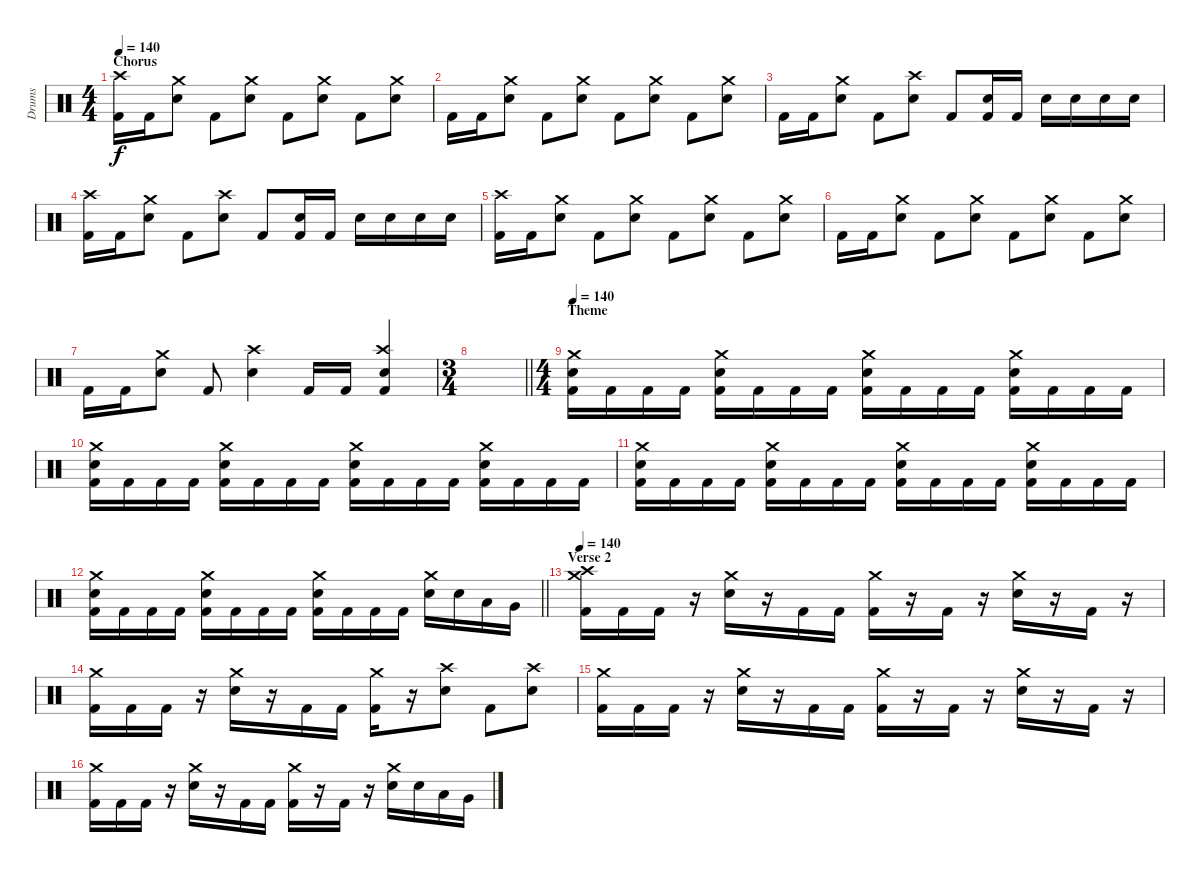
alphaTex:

\track ("Drums" "Drums") {instrument percussion}
\staff {score}
\articulation defaults
\ts (4 4)
\section ("" "Chorus")
\tempo 140
\clef neutral
\ks c
("Kick (hit) 2" "Crash high (hit)").16{dy f} "Kick (hit) 2".16 ("Snare (hit) 2" "Crash medium (hit)").8 "Kick (hit) 2".8 ("Snare (hit) 2" "Crash medium (hit)").8 "Kick (hit) 2".8 ("Snare (hit) 2" "Crash medium (hit)").8 "Kick (hit) 2".8 ("Snare (hit) 2" "Crash medium (hit)").8 |
"Kick (hit) 2".16 "Kick (hit) 2".16 ("Snare (hit) 2" "Crash medium (hit)").8 "Kick (hit) 2".8 ("Snare (hit) 2" "Crash medium (hit)").8 "Kick (hit) 2".8 ("Snare (hit) 2" "Crash medium (hit)").8 "Kick (hit) 2".8 ("Snare (hit) 2" "Crash medium (hit)").8 |
"Kick (hit) 2".16 "Kick (hit) 2".16 ("Snare (hit) 2" "Crash medium (hit)").8 "Kick (hit) 2".8 ("Snare (hit) 2" "Crash high (hit)").8 "Kick (hit) 2".8 ("Snare (hit) 2" "Kick (hit) 2").16 "Kick (hit) 2".16 "Snare (hit) 2".16 "Snare (hit) 2".16 "Snare (hit) 2".16 "Snare (hit) 2".16 |
("Kick (hit) 2" "Crash high (hit)").16 "Kick (hit) 2".16 ("Snare (hit) 2" "Crash medium (hit)").8 "Kick (hit) 2".8 ("Snare (hit) 2" "Crash high (hit)").8 "Kick (hit) 2".8 ("Snare (hit) 2" "Kick (hit) 2").16 "Kick (hit) 2".16 "Snare (hit) 2".16 "Snare (hit) 2".16 "Snare (hit) 2".16 "Snare (hit) 2".16 |
("Kick (hit) 2" "Crash high (hit)").16 "Kick (hit) 2".16 ("Snare (hit) 2" "Crash medium (hit)").8 "Kick (hit) 2".8 ("Snare (hit) 2" "Crash medium (hit)").8 "Kick (hit) 2".8 ("Snare (hit) 2" "Crash medium (hit)").8 "Kick (hit) 2".8 ("Snare (hit) 2" "Crash medium (hit)").8 |
"Kick (hit) 2".16 "Kick (hit) 2".16 ("Snare (hit) 2" "Crash medium (hit)").8 "Kick (hit) 2".8 ("Snare (hit) 2" "Crash medium (hit)").8 "Kick (hit) 2".8 ("Snare (hit) 2" "Crash medium (hit)").8 "Kick (hit) 2".8 ("Snare (hit) 2" "Crash medium (hit)").8 |
"Kick (hit) 2".16 "Kick (hit) 2".16 ("Snare (hit) 2" "Crash medium (hit)").8 "Kick (hit) 2".8 ("Snare (hit) 2" "Crash high (hit)").4 "Kick (hit) 2".16 "Kick (hit) 2".16 ("Snare (hit) 2" "Kick (hit) 2" "Crash high (hit)").4 |
\ts (3 4)
\barLineRight lightlight
|
\ts (4 4)
\section ("" "Theme")
\tempo 140
("Snare (hit) 2" "Kick (hit) 2" "Crash medium (hit)").16 "Kick (hit) 2".16 "Kick (hit) 2".16 "Kick (hit) 2".16 ("Snare (hit) 2" "Kick (hit) 2" "Crash medium (hit)").16 "Kick (hit) 2".16 "Kick (hit) 2".16 "Kick (hit) 2".16 ("Snare (hit) 2" "Kick (hit) 2" "Crash medium (hit)").16 "Kick (hit) 2".16 "Kick (hit) 2".16 "Kick (hit) 2".16 ("Snare (hit) 2" "Kick (hit) 2" "Crash medium (hit)").16 "Kick (hit) 2".16 "Kick (hit) 2".16 "Kick (hit) 2".16 |
("Snare (hit) 2" "Kick (hit) 2" "Crash medium (hit)").16 "Kick (hit) 2".16 "Kick (hit) 2".16 "Kick (hit) 2".16 ("Snare (hit) 2" "Kick (hit) 2" "Crash medium (hit)").16 "Kick (hit) 2".16 "Kick (hit) 2".16 "Kick (hit) 2".16 ("Snare (hit) 2" "Kick (hit) 2" "Crash medium (hit)").16 "Kick (hit) 2".16 "Kick (hit) 2".16 "Kick (hit) 2".16 ("Snare (hit) 2" "Kick (hit) 2" "Crash medium (hit)").16 "Kick (hit) 2".16 "Kick (hit) 2".16 "Kick (hit) 2".16 |
("Snare (hit) 2" "Kick (hit) 2" "Crash medium (hit)").16 "Kick (hit) 2".16 "Kick (hit) 2".16 "Kick (hit) 2".16 ("Snare (hit) 2" "Kick (hit) 2" "Crash medium (hit)").16 "Kick (hit) 2".16 "Kick (hit) 2".16 "Kick (hit) 2".16 ("Snare (hit) 2" "Kick (hit) 2" "Crash medium (hit)").16 "Kick (hit) 2".16 "Kick (hit) 2".16 "Kick (hit) 2".16 ("Snare (hit) 2" "Kick (hit) 2" "Crash medium (hit)").16 "Kick (hit) 2".16 "Kick (hit) 2".16 "Kick (hit) 2".16 |
\barLineRight lightlight
("Snare (hit) 2" "Kick (hit) 2" "Crash medium (hit)").16 "Kick (hit) 2".16 "Kick (hit) 2".16 "Kick (hit) 2".16 ("Snare (hit) 2" "Kick (hit) 2" "Crash medium (hit)").16 "Kick (hit) 2".16 "Kick (hit) 2".16 "Kick (hit) 2".16 ("Snare (hit) 2" "Kick (hit) 2" "Crash medium (hit)").16 "Kick (hit) 2".16 "Kick (hit) 2".16 "Kick (hit) 2".16 ("Snare (hit) 2" "Crash medium (hit)").16 "Snare (hit) 2".16 "Low Tom (hit)".16 "Very Low Tom (hit)".16 |
\section ("" "Verse 2")
\tempo 140
("Kick (hit) 2" "Crash medium (hit)" "Crash high (hit)").16 "Kick (hit) 2".16 "Kick (hit) 2".16 r.16 ("Snare (hit) 2" "Crash medium (hit)").16 r.16 "Kick (hit) 2".16 "Kick (hit) 2".16 ("Kick (hit) 2" "Crash medium (hit)").16 r.16 "Kick (hit) 2".16 r.16 ("Snare (hit) 2" "Crash medium (hit)").16 r.16 "Kick (hit) 2".16 r.16 |
("Kick (hit) 2" "Crash medium (hit)").16 "Kick (hit) 2".16 "Kick (hit) 2".16 r.16 ("Snare (hit) 2" "Crash medium (hit)").16 r.16 "Kick (hit) 2".16 "Kick (hit) 2".16 ("Kick (hit) 2" "Crash medium (hit)").16 r.16 ("Snare (hit) 2" "Crash high (hit)").8 "Kick (hit) 2".8 ("Snare (hit) 2" "Crash high (hit)").8 |
("Kick (hit) 2" "Crash medium (hit)").16 "Kick (hit) 2".16 "Kick (hit) 2".16 r.16 ("Snare (hit) 2" "Crash medium (hit)").16 r.16 "Kick (hit) 2".16 "Kick (hit) 2".16 ("Kick (hit) 2" "Crash medium (hit)").16 r.16 "Kick (hit) 2".16 r.16 ("Snare (hit) 2" "Crash medium (hit)").16 r.16 "Kick (hit) 2".16 r.16 |
("Kick (hit) 2" "Crash medium (hit)").16 "Kick (hit) 2".16 "Kick (hit) 2".16 r.16 ("Snare (hit) 2" "Crash medium (hit)").16 r.16 "Kick (hit) 2".16 "Kick (hit) 2".16 ("Kick (hit) 2" "Crash medium (hit)").16 r.16 "Kick (hit) 2".16 r.16 ("Snare (hit) 2" "Crash medium (hit)").16 "Snare (hit) 2".16 "Low Tom (hit)".16 "Very Low Tom (hit)".16
